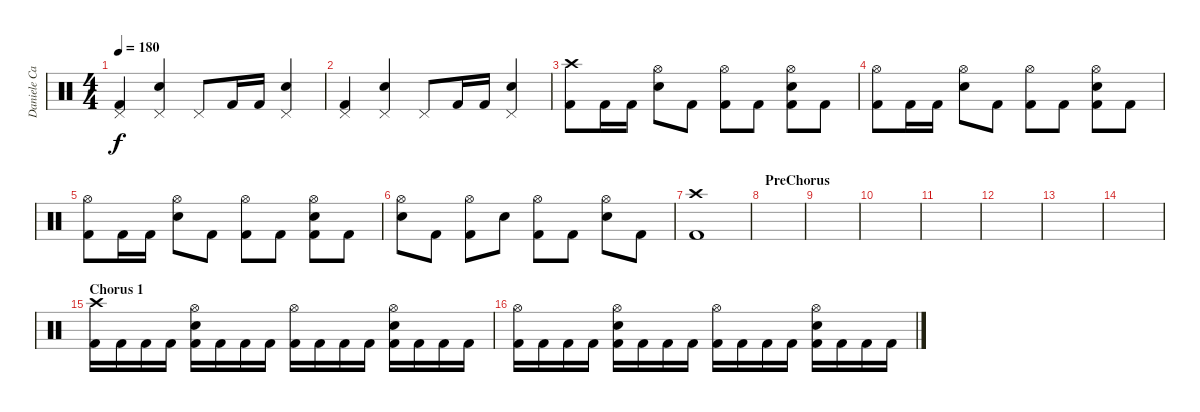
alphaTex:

\track ("Daniele Carbonera " "Daniele Ca") {instrument percussion}
\staff {score}
\articulation defaults
\ts (4 4)
\tempo 180
\clef neutral
\ks c
("Pedal Hi-Hat (hit)" "Kick (hit) 2").4{dy f} ("Pedal Hi-Hat (hit)" "Electric Snare (hit)").4 "Pedal Hi-Hat (hit)".8 "Kick (hit) 2".16 "Kick (hit) 2".16 ("Pedal Hi-Hat (hit)" "Electric Snare (hit)").4 |
("Pedal Hi-Hat (hit)" "Kick (hit) 2").4 ("Pedal Hi-Hat (hit)" "Electric Snare (hit)").4 "Pedal Hi-Hat (hit)".8 "Kick (hit) 2".16 "Kick (hit) 2".16 ("Pedal Hi-Hat (hit)" "Electric Snare (hit)").4 |
("Crash high (hit)" "Kick (hit) 2").8 "Kick (hit) 2".16 "Kick (hit) 2".16 ("Hi-Hat (open)" "Electric Snare (hit)").8 "Kick (hit) 2".8 ("Hi-Hat (open)" "Kick (hit) 2").8 "Kick (hit) 2".8 ("Hi-Hat (open)" "Electric Snare (hit)" "Kick (hit) 2").8 "Kick (hit) 2".8 |
("Hi-Hat (open)" "Kick (hit) 2").8 "Kick (hit) 2".16 "Kick (hit) 2".16 ("Hi-Hat (open)" "Electric Snare (hit)").8 "Kick (hit) 2".8 ("Hi-Hat (open)" "Kick (hit) 2").8 "Kick (hit) 2".8 ("Hi-Hat (open)" "Electric Snare (hit)" "Kick (hit) 2").8 "Kick (hit) 2".8 |
("Hi-Hat (open)" "Kick (hit) 2").8 "Kick (hit) 2".16 "Kick (hit) 2".16 ("Hi-Hat (open)" "Electric Snare (hit)").8 "Kick (hit) 2".8 ("Hi-Hat (open)" "Kick (hit) 2").8 "Kick (hit) 2".8 ("Hi-Hat (open)" "Electric Snare (hit)" "Kick (hit) 2").8 "Kick (hit) 2".8 |
("Hi-Hat (open)" "Electric Snare (hit)").8 "Kick (hit) 2".8 ("Hi-Hat (open)" "Kick (hit) 2").8 "Electric Snare (hit)".8 ("Hi-Hat (open)" "Kick (hit) 2").8 "Kick (hit) 2".8 ("Hi-Hat (open)" "Electric Snare (hit)").8 "Kick (hit) 2".8 |
("Crash high (hit)" "Kick (hit) 2").1 |
\section ("" "PreChorus")
|
|
|
|
|
|
|
\section ("" "Chorus 1")
("Crash high (hit)" "Kick (hit) 2").16 "Kick (hit) 2".16 "Kick (hit) 2".16 "Kick (hit) 2".16 ("Hi-Hat (open)" "Electric Snare (hit)" "Kick (hit) 2").16 "Kick (hit) 2".16 "Kick (hit) 2".16 "Kick (hit) 2".16 ("Hi-Hat (open)" "Kick (hit) 2").16 "Kick (hit) 2".16 "Kick (hit) 2".16 "Kick (hit) 2".16 ("Hi-Hat (open)" "Electric Snare (hit)" "Kick (hit) 2").16 "Kick (hit) 2".16 "Kick (hit) 2".16 "Kick (hit) 2".16 |
("Hi-Hat (open)" "Kick (hit) 2").16 "Kick (hit) 2".16 "Kick (hit) 2".16 "Kick (hit) 2".16 ("Hi-Hat (open)" "Electric Snare (hit)" "Kick (hit) 2").16 "Kick (hit) 2".16 "Kick (hit) 2".16 "Kick (hit) 2".16 ("Hi-Hat (open)" "Kick (hit) 2").16 "Kick (hit) 2".16 "Kick (hit) 2".16 "Kick (hit) 2".16 ("Hi-Hat (open)" "Electric Snare (hit)" "Kick (hit) 2").16 "Kick (hit) 2".16 "Kick (hit) 2".16 "Kick (hit) 2".16
